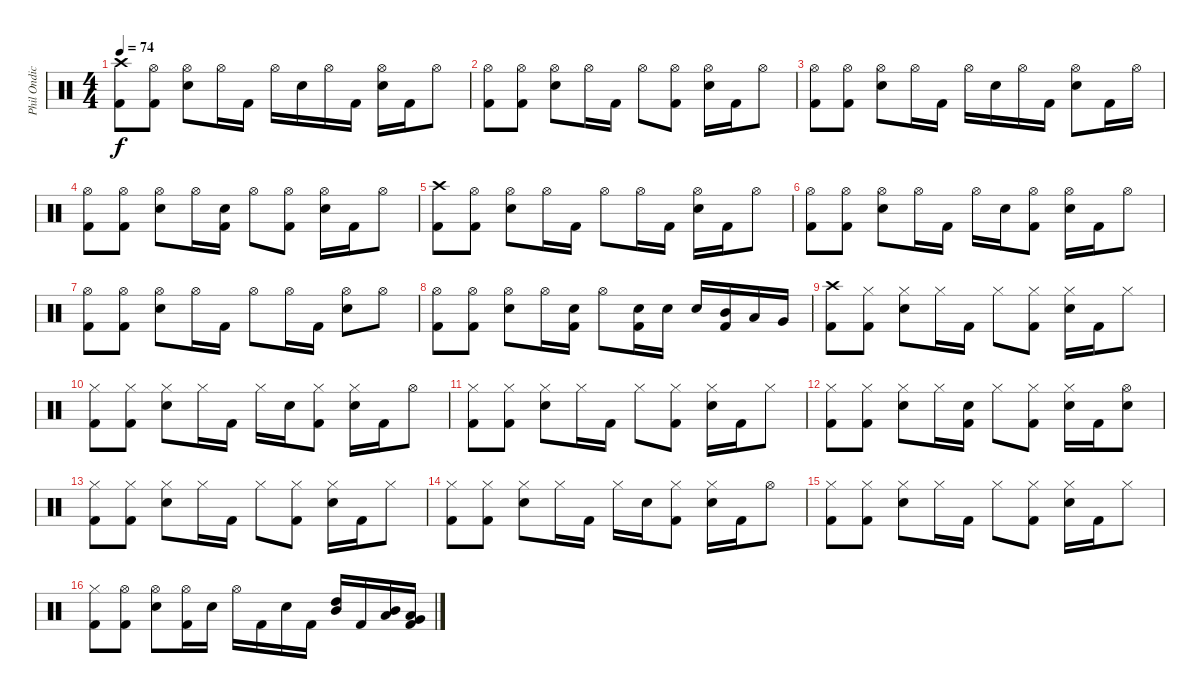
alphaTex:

\track ("Phil Ondich Drums" "Phil Ondic") {instrument percussion}
\staff {score}
\articulation defaults
\ts (4 4)
\tempo 74
\clef neutral
\ks c
("Crash high (hit)" "Kick (hit) 2").8{dy f} ("Hi-Hat (open)" "Kick (hit) 2").8 ("Hi-Hat (open)" "Snare (hit) 2").8 "Hi-Hat (open)".16 "Kick (hit) 2".16 "Hi-Hat (open)".16 "Snare (hit) 2".16 "Hi-Hat (open)".16 "Kick (hit) 2".16 ("Hi-Hat (open)" "Snare (hit) 2").16 "Kick (hit) 2".16 "Hi-Hat (open)".8 |
("Hi-Hat (open)" "Kick (hit) 2").8 ("Hi-Hat (open)" "Kick (hit) 2").8 ("Hi-Hat (open)" "Snare (hit) 2").8 "Hi-Hat (open)".16 "Kick (hit) 2".16 "Hi-Hat (open)".8 ("Hi-Hat (open)" "Kick (hit) 2").8 ("Hi-Hat (open)" "Snare (hit) 2").16 "Kick (hit) 2".16 "Hi-Hat (open)".8 |
("Hi-Hat (open)" "Kick (hit) 2").8 ("Hi-Hat (open)" "Kick (hit) 2").8 ("Hi-Hat (open)" "Snare (hit) 2").8 "Hi-Hat (open)".16 "Kick (hit) 2".16 "Hi-Hat (open)".16 "Snare (hit) 2".16 "Hi-Hat (open)".16 "Kick (hit) 2".16 ("Hi-Hat (open)" "Snare (hit) 2").8 "Kick (hit) 2".16 "Hi-Hat (open)".16 |
("Hi-Hat (open)" "Kick (hit) 2").8 ("Hi-Hat (open)" "Kick (hit) 2").8 ("Hi-Hat (open)" "Snare (hit) 2").8 "Hi-Hat (open)".16 ("Snare (hit) 2" "Kick (hit) 2").16 "Hi-Hat (open)".8 ("Hi-Hat (open)" "Kick (hit) 2").8 ("Hi-Hat (open)" "Snare (hit) 2").16 "Kick (hit) 2".16 "Hi-Hat (open)".8 |
("Crash high (hit)" "Kick (hit) 2").8 ("Hi-Hat (open)" "Kick (hit) 2").8 ("Hi-Hat (open)" "Snare (hit) 2").8 "Hi-Hat (open)".16 "Kick (hit) 2".16 "Hi-Hat (open)".8 "Hi-Hat (open)".16 "Kick (hit) 2".16 ("Hi-Hat (open)" "Snare (hit) 2").16 "Kick (hit) 2".16 "Hi-Hat (open)".8 |
("Hi-Hat (open)" "Kick (hit) 2").8 ("Hi-Hat (open)" "Kick (hit) 2").8 ("Hi-Hat (open)" "Snare (hit) 2").8 "Hi-Hat (open)".16 "Kick (hit) 2".16 "Hi-Hat (open)".16 "Snare (hit) 2".16 ("Hi-Hat (open)" "Kick (hit) 2").8 ("Hi-Hat (open)" "Snare (hit) 2").16 "Kick (hit) 2".16 "Hi-Hat (open)".8 |
("Hi-Hat (open)" "Kick (hit) 2").8 ("Hi-Hat (open)" "Kick (hit) 2").8 ("Hi-Hat (open)" "Snare (hit) 2").8 "Hi-Hat (open)".16 "Kick (hit) 2".16 "Hi-Hat (open)".8 "Hi-Hat (open)".16 "Kick (hit) 2".16 ("Hi-Hat (open)" "Snare (hit) 2").8 "Hi-Hat (open)".8 |
("Hi-Hat (open)" "Kick (hit) 2").8 ("Hi-Hat (open)" "Kick (hit) 2").8 ("Hi-Hat (open)" "Snare (hit) 2").8 "Hi-Hat (open)".16 ("Snare (hit) 2" "Kick (hit) 2").16 "Hi-Hat (open)".8 ("Snare (hit) 2" "Kick (hit) 2").16 "Snare (hit) 2".16 "Snare (hit) 2".16 ("Mid Tom (hit)" "Kick (hit) 2").16 "Low Tom (hit)".16 "Very Low Tom (hit)".16 |
("Crash high (hit)" "Kick (hit) 2").8 ("Hi-Hat (closed)" "Kick (hit) 2").8 ("Hi-Hat (closed)" "Snare (hit) 2").8 "Hi-Hat (closed)".16 "Kick (hit) 2".16 "Hi-Hat (closed)".8 ("Hi-Hat (closed)" "Kick (hit) 2").8 ("Hi-Hat (closed)" "Snare (hit) 2").16 "Kick (hit) 2".16 "Hi-Hat (closed)".8 |
("Hi-Hat (closed)" "Kick (hit) 2").8 ("Hi-Hat (closed)" "Kick (hit) 2").8 ("Hi-Hat (closed)" "Snare (hit) 2").8 "Hi-Hat (closed)".16 "Kick (hit) 2".16 "Hi-Hat (closed)".16 "Snare (hit) 2".16 ("Hi-Hat (closed)" "Kick (hit) 2").8 ("Hi-Hat (closed)" "Snare (hit) 2").16 "Kick (hit) 2".16 "Hi-Hat (open)".8 |
("Hi-Hat (closed)" "Kick (hit) 2").8 ("Hi-Hat (closed)" "Kick (hit) 2").8 ("Hi-Hat (closed)" "Snare (hit) 2").8 "Hi-Hat (closed)".16 "Kick (hit) 2".16 "Hi-Hat (closed)".8 ("Hi-Hat (closed)" "Kick (hit) 2").8 ("Hi-Hat (closed)" "Snare (hit) 2").16 "Kick (hit) 2".16 "Hi-Hat (closed)".8 |
("Hi-Hat (closed)" "Kick (hit) 2").8 ("Hi-Hat (closed)" "Kick (hit) 2").8 ("Hi-Hat (closed)" "Snare (hit) 2").8 "Hi-Hat (closed)".16 ("Snare (hit) 2" "Kick (hit) 2").16 "Hi-Hat (closed)".8 ("Hi-Hat (closed)" "Kick (hit) 2").8 ("Hi-Hat (closed)" "Snare (hit) 2").16 "Kick (hit) 2".16 ("Hi-Hat (open)" "Snare (hit) 2").8 |
("Hi-Hat (closed)" "Kick (hit) 2").8 ("Hi-Hat (closed)" "Kick (hit) 2").8 ("Hi-Hat (closed)" "Snare (hit) 2").8 "Hi-Hat (closed)".16 "Kick (hit) 2".16 "Hi-Hat (closed)".8 ("Hi-Hat (closed)" "Kick (hit) 2").8 ("Hi-Hat (closed)" "Snare (hit) 2").16 "Kick (hit) 2".16 "Hi-Hat (closed)".8 |
("Hi-Hat (closed)" "Kick (hit) 2").8 ("Hi-Hat (closed)" "Kick (hit) 2").8 ("Hi-Hat (closed)" "Snare (hit) 2").8 "Hi-Hat (closed)".16 "Kick (hit) 2".16 "Hi-Hat (closed)".16 "Snare (hit) 2".16 ("Hi-Hat (closed)" "Kick (hit) 2").8 ("Hi-Hat (closed)" "Snare (hit) 2").16 "Kick (hit) 2".16 "Hi-Hat (open)".8 |
("Hi-Hat (closed)" "Kick (hit) 2").8 ("Hi-Hat (closed)" "Kick (hit) 2").8 ("Hi-Hat (closed)" "Snare (hit) 2").8 "Hi-Hat (closed)".16 "Kick (hit) 2".16 "Hi-Hat (closed)".8 ("Hi-Hat (closed)" "Kick (hit) 2").8 ("Hi-Hat (closed)" "Snare (hit) 2").16 "Kick (hit) 2".16 "Hi-Hat (closed)".8 |
("Hi-Hat (closed)" "Kick (hit) 2").8 ("Hi-Hat (open)" "Kick (hit) 2").8 ("Hi-Hat (open)" "Snare (hit) 2").8 ("Hi-Hat (open)" "Kick (hit) 2").16 "Snare (hit) 2".16 "Hi-Hat (open)".16 "Kick (hit) 2".16 "Snare (hit) 2".16 "Kick (hit) 2".16 ("High Tom (hit)" "Mid Tom (hit)").16 "Kick (hit) 2".16 ("Mid Tom (hit)" "Low Tom (hit)").16 ("Low Tom (hit)" "Very Low Tom (hit)" "Kick (hit) 2").16
